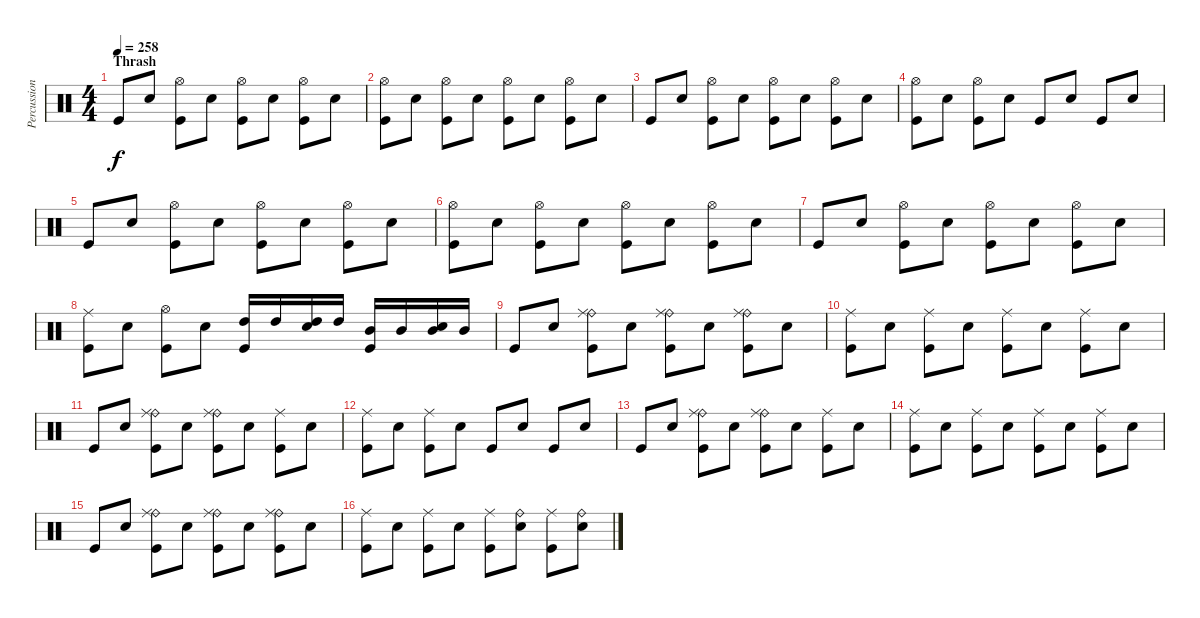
\track ("Percussion" "Percussion") {instrument percussion}
\staff {score}
\articulation defaults
\ts (4 4)
\section ("" "Thrash")
\tempo 258
\clef neutral
\ks c "Kick (hit)".8{dy f} "Snare (hit) 2".8
("Hi-Hat (open)" "Kick (hit)").8 "Snare (hit) 2".8 ("Hi-Hat (open)" "Kick (hit)").8 "Snare (hit) 2".8 ("Hi-Hat (open)" "Kick (hit)").8 "Snare (hit) 2".8 |
("Hi-Hat (open)" "Kick (hit)").8 "Snare (hit) 2".8 ("Hi-Hat (open)" "Kick (hit)").8 "Snare (hit) 2".8 ("Hi-Hat (open)" "Kick (hit)").8 "Snare (hit) 2".8 ("Hi-Hat (open)" "Kick (hit)").8 "Snare (hit) 2".8 |
"Kick (hit)".8 "Snare (hit) 2".8 ("Hi-Hat (open)" "Kick (hit)").8 "Snare (hit) 2".8 ("Hi-Hat (open)" "Kick (hit)").8 "Snare (hit) 2".8 ("Hi-Hat (open)" "Kick (hit)").8 "Snare (hit) 2".8 |
("Hi-Hat (open)" "Kick (hit)").8 "Snare (hit) 2".8 ("Hi-Hat (open)" "Kick (hit)").8 "Snare (hit) 2".8 "Kick (hit)".8 "Snare (hit) 2".8 "Kick (hit)".8 "Snare (hit) 2".8 |
"Kick (hit)".8 "Snare (hit) 2".8 ("Hi-Hat (open)" "Kick (hit)").8 "Snare (hit) 2".8 ("Hi-Hat (open)" "Kick (hit)").8 "Snare (hit) 2".8 ("Hi-Hat (open)" "Kick (hit)").8 "Snare (hit) 2".8 |
("Hi-Hat (open)" "Kick (hit)").8 "Snare (hit) 2".8 ("Hi-Hat (open)" "Kick (hit)").8 "Snare (hit) 2".8 ("Hi-Hat (open)" "Kick (hit)").8 "Snare (hit) 2".8 ("Hi-Hat (open)" "Kick (hit)").8 "Snare (hit) 2".8 |
"Kick (hit)".8 "Snare (hit) 2".8 ("Hi-Hat (open)" "Kick (hit)").8 "Snare (hit) 2".8 ("Hi-Hat (open)" "Kick (hit)").8 "Snare (hit) 2".8 ("Hi-Hat (open)" "Kick (hit)").8 "Snare (hit) 2".8 |
("Ride (middle)" "Kick (hit)").8 "Snare (hit) 2".8 ("Hi-Hat (open)" "Kick (hit)").8 "Snare (hit) 2".8 ("High Tom (hit)" "Kick (hit)").16 "High Tom (hit)".16 ("Snare (hit) 2" "High Tom (hit)").16 "High Tom (hit)".16 ("Mid Tom (hit)" "Kick (hit)").16 "Mid Tom (hit)".16 ("Snare (hit) 2" "Mid Tom (hit)").16 "Mid Tom (hit)".16 |
"Kick (hit)".8 "Snare (hit) 2".8 ("Ride (bell)" "Ride (middle)" "Kick (hit)").8 "Snare (hit) 2".8 ("Ride (bell)" "Ride (middle)" "Kick (hit)").8 "Snare (hit) 2".8 ("Ride (bell)" "Ride (middle)" "Kick (hit)").8 "Snare (hit) 2".8 |
("Ride (middle)" "Kick (hit)").8 "Snare (hit) 2".8 ("Ride (middle)" "Kick (hit)").8 "Snare (hit) 2".8 ("Ride (middle)" "Kick (hit)").8 "Snare (hit) 2".8 ("Ride (middle)" "Kick (hit)").8 "Snare (hit) 2".8 |
"Kick (hit)".8 "Snare (hit) 2".8 ("Ride (bell)" "Ride (middle)" "Kick (hit)").8 "Snare (hit) 2".8 ("Ride (bell)" "Ride (middle)" "Kick (hit)").8 "Snare (hit) 2".8 ("Ride (middle)" "Kick (hit)").8 "Snare (hit) 2".8 |
("Ride (middle)" "Kick (hit)").8 "Snare (hit) 2".8 ("Ride (middle)" "Kick (hit)").8 "Snare (hit) 2".8 "Kick (hit)".8 "Snare (hit) 2".8 "Kick (hit)".8 "Snare (hit) 2".8 |
"Kick (hit)".8 "Snare (hit) 2".8 ("Ride (bell)" "Ride (middle)" "Kick (hit)").8 "Snare (hit) 2".8 ("Ride (bell)" "Ride (middle)" "Kick (hit)").8 "Snare (hit) 2".8 ("Ride (middle)" "Kick (hit)").8 "Snare (hit) 2".8 |
("Ride (middle)" "Kick (hit)").8 "Snare (hit) 2".8 ("Ride (middle)" "Kick (hit)").8 "Snare (hit) 2".8 ("Ride (middle)" "Kick (hit)").8 "Snare (hit) 2".8 ("Ride (middle)" "Kick (hit)").8 "Snare (hit) 2".8 |
"Kick (hit)".8 "Snare (hit) 2".8 ("Ride (bell)" "Ride (middle)" "Kick (hit)").8 "Snare (hit) 2".8 ("Ride (bell)" "Ride (middle)" "Kick (hit)").8 "Snare (hit) 2".8 ("Ride (bell)" "Ride (middle)" "Kick (hit)").8 "Snare (hit) 2".8 |
("Ride (middle)" "Kick (hit)").8 "Snare (hit) 2".8 ("Ride (middle)" "Kick (hit)").8 "Snare (hit) 2".8 ("Ride (middle)" "Kick (hit)").8 ("Ride (bell)" "Snare (hit) 2").8 ("Ride (middle)" "Kick (hit)").8 ("Ride (bell)" "Snare (hit) 2").8
